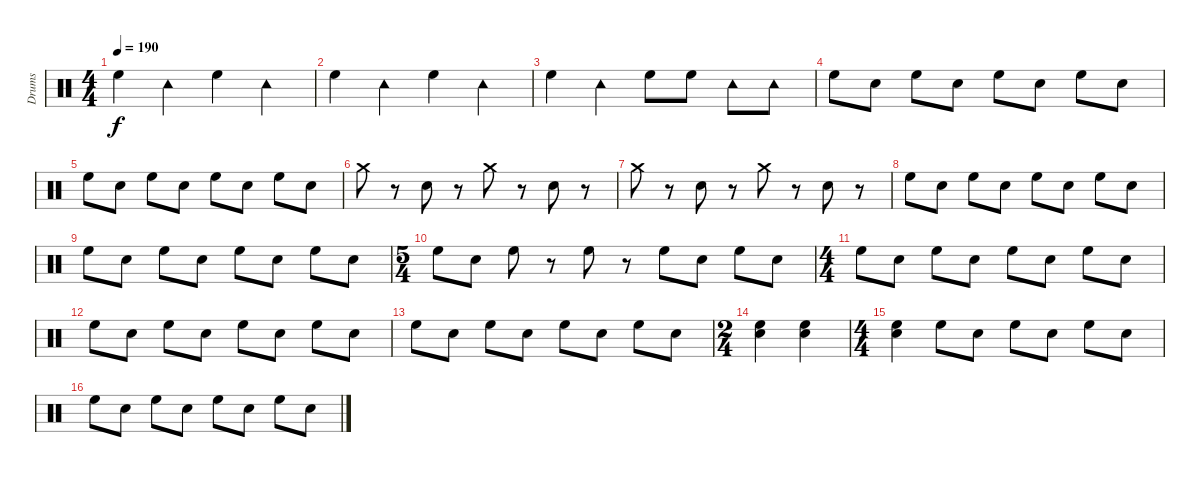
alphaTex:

\track ("Drums" "Drums") {instrument percussion}
\staff {score}
\articulation defaults
\ts (4 4)
\tempo 190
\clef neutral
\ks c "High Floor Tom (hit)".4{dy f} "Tambourine (hit)".4 "High Floor Tom (hit)".4 "Tambourine (hit)".4
|
"High Floor Tom (hit)".4 "Tambourine (hit)".4 "High Floor Tom (hit)".4 "Tambourine (hit)".4 |
"High Floor Tom (hit)".4 "Tambourine (hit)".4 "High Floor Tom (hit)".8 "High Floor Tom (hit)".8 "Tambourine (hit)".8 "Tambourine (hit)".8 |
"High Floor Tom (hit)".8 "Electric Snare (hit)".8 "High Floor Tom (hit)".8 "Electric Snare (hit)".8 "High Floor Tom (hit)".8 "Electric Snare (hit)".8 "High Floor Tom (hit)".8 "Electric Snare (hit)".8 |
"High Floor Tom (hit)".8 "Electric Snare (hit)".8 "High Floor Tom (hit)".8 "Electric Snare (hit)".8 "High Floor Tom (hit)".8 "Electric Snare (hit)".8 "High Floor Tom (hit)".8 "Electric Snare (hit)".8 |
"Crash medium (hit)".8 r.8 "Electric Snare (hit)".8 r.8 "Crash medium (hit)".8 r.8 "Electric Snare (hit)".8 r.8 |
"Crash medium (hit)".8 r.8 "Electric Snare (hit)".8 r.8 "Crash medium (hit)".8 r.8 "Electric Snare (hit)".8 r.8 |
"High Floor Tom (hit)".8 "Electric Snare (hit)".8 "High Floor Tom (hit)".8 "Electric Snare (hit)".8 "High Floor Tom (hit)".8 "Electric Snare (hit)".8 "High Floor Tom (hit)".8 "Electric Snare (hit)".8 |
"High Floor Tom (hit)".8 "Electric Snare (hit)".8 "High Floor Tom (hit)".8 "Electric Snare (hit)".8 "High Floor Tom (hit)".8 "Electric Snare (hit)".8 "High Floor Tom (hit)".8 "Electric Snare (hit)".8 |
\ts (5 4)
"High Floor Tom (hit)".8 "Electric Snare (hit)".8 "High Floor Tom (hit)".8 r.8 "High Floor Tom (hit)".8 r.8 "High Floor Tom (hit)".8 "Electric Snare (hit)".8 "High Floor Tom (hit)".8 "Electric Snare (hit)".8 |
\ts (4 4)
"High Floor Tom (hit)".8 "Electric Snare (hit)".8 "High Floor Tom (hit)".8 "Electric Snare (hit)".8 "High Floor Tom (hit)".8 "Electric Snare (hit)".8 "High Floor Tom (hit)".8 "Electric Snare (hit)".8 |
"High Floor Tom (hit)".8 "Electric Snare (hit)".8 "High Floor Tom (hit)".8 "Electric Snare (hit)".8 "High Floor Tom (hit)".8 "Electric Snare (hit)".8 "High Floor Tom (hit)".8 "Electric Snare (hit)".8 |
"High Floor Tom (hit)".8 "Electric Snare (hit)".8 "High Floor Tom (hit)".8 "Electric Snare (hit)".8 "High Floor Tom (hit)".8 "Electric Snare (hit)".8 "High Floor Tom (hit)".8 "Electric Snare (hit)".8 |
\ts (2 4)
("Electric Snare (hit)" "High Floor Tom (hit)").4 ("Electric Snare (hit)" "High Floor Tom (hit)").4 |
\ts (4 4)
("Electric Snare (hit)" "High Floor Tom (hit)").4 "High Floor Tom (hit)".8 "Electric Snare (hit)".8 "High Floor Tom (hit)".8 "Electric Snare (hit)".8 "High Floor Tom (hit)".8 "Electric Snare (hit)".8 |
"High Floor Tom (hit)".8 "Electric Snare (hit)".8 "High Floor Tom (hit)".8 "Electric Snare (hit)".8 "High Floor Tom (hit)".8 "Electric Snare (hit)".8 "High Floor Tom (hit)".8 "Electric Snare (hit)".8
